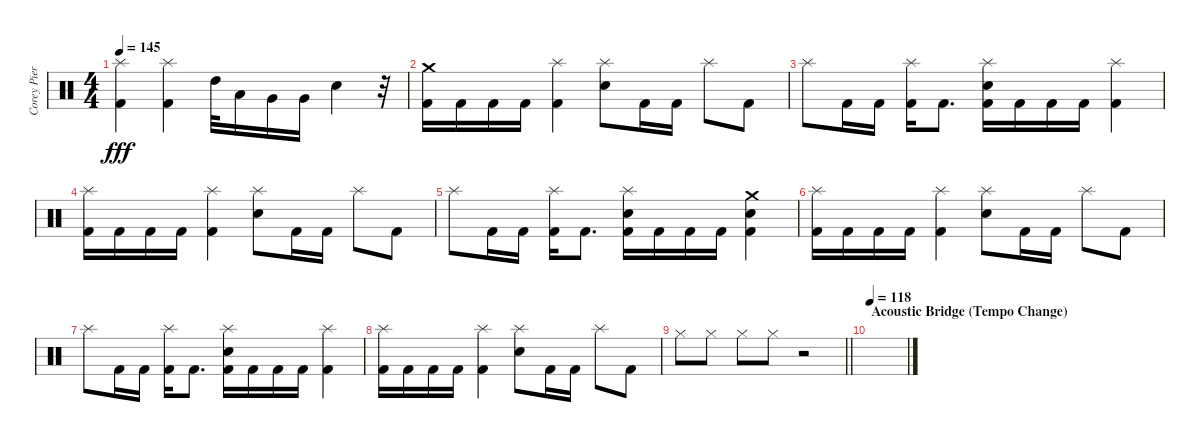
\track ("Corey Pierce" "Corey Pier") {instrument percussion}
\staff {score}
\articulation defaults
\ts (4 4)
\tempo 145
\clef neutral
\ks c
("Splash (hit)" "Kick (hit) 2").4{dy fff} ("Splash (hit)" "Kick (hit) 2").4 "High Tom (hit)".32 "Low Tom (hit)".16 "Very Low Tom (hit)".16 "Very Low Tom (hit)".16 "Electric Snare (hit)".4 r.32 |
("Crash medium (hit)" "Kick (hit) 2").16 "Kick (hit) 2".16 "Kick (hit) 2".16 "Kick (hit) 2".16 ("Splash (hit)" "Kick (hit) 2").4 ("Splash (hit)" "Electric Snare (hit)").8 "Kick (hit) 2".16 "Kick (hit) 2".16 "Splash (hit)".8 "Kick (hit) 2".8 |
"Splash (hit)".8 "Kick (hit) 2".16 "Kick (hit) 2".16 ("Splash (hit)" "Kick (hit) 2").16 "Kick (hit) 2".8{d} ("Splash (hit)" "Electric Snare (hit)" "Kick (hit) 2").16 "Kick (hit) 2".16 "Kick (hit) 2".16 "Kick (hit) 2".16 ("Splash (hit)" "Kick (hit) 2").4 |
("Splash (hit)" "Kick (hit) 2").16 "Kick (hit) 2".16 "Kick (hit) 2".16 "Kick (hit) 2".16 ("Splash (hit)" "Kick (hit) 2").4 ("Splash (hit)" "Electric Snare (hit)").8 "Kick (hit) 2".16 "Kick (hit) 2".16 "Splash (hit)".8 "Kick (hit) 2".8 |
"Splash (hit)".8 "Kick (hit) 2".16 "Kick (hit) 2".16 ("Splash (hit)" "Kick (hit) 2").16 "Kick (hit) 2".8{d} ("Splash (hit)" "Electric Snare (hit)" "Kick (hit) 2").16 "Kick (hit) 2".16 "Kick (hit) 2".16 "Kick (hit) 2".16 ("Crash medium (hit)" "Electric Snare (hit)" "Kick (hit) 2").4 |
("Splash (hit)" "Kick (hit) 2").16 "Kick (hit) 2".16 "Kick (hit) 2".16 "Kick (hit) 2".16 ("Splash (hit)" "Kick (hit) 2").4 ("Splash (hit)" "Electric Snare (hit)").8 "Kick (hit) 2".16 "Kick (hit) 2".16 "Splash (hit)".8 "Kick (hit) 2".8 |
"Splash (hit)".8 "Kick (hit) 2".16 "Kick (hit) 2".16 ("Splash (hit)" "Kick (hit) 2").16 "Kick (hit) 2".8{d} ("Splash (hit)" "Electric Snare (hit)" "Kick (hit) 2").16 "Kick (hit) 2".16 "Kick (hit) 2".16 "Kick (hit) 2".16 ("Splash (hit)" "Kick (hit) 2").4 |
("Splash (hit)" "Kick (hit) 2").16 "Kick (hit) 2".16 "Kick (hit) 2".16 "Kick (hit) 2".16 ("Splash (hit)" "Kick (hit) 2").4 ("Splash (hit)" "Electric Snare (hit)").8 "Kick (hit) 2".16 "Kick (hit) 2".16 "Splash (hit)".8 "Kick (hit) 2".8 |
\barLineRight lightlight "Hi-Hat (closed)".8 "Hi-Hat (closed)".8 "Hi-Hat (closed)".8 "Hi-Hat (closed)".8
r.2 |
\section ("" "Acoustic Bridge (Tempo Change)")
\tempo 118
